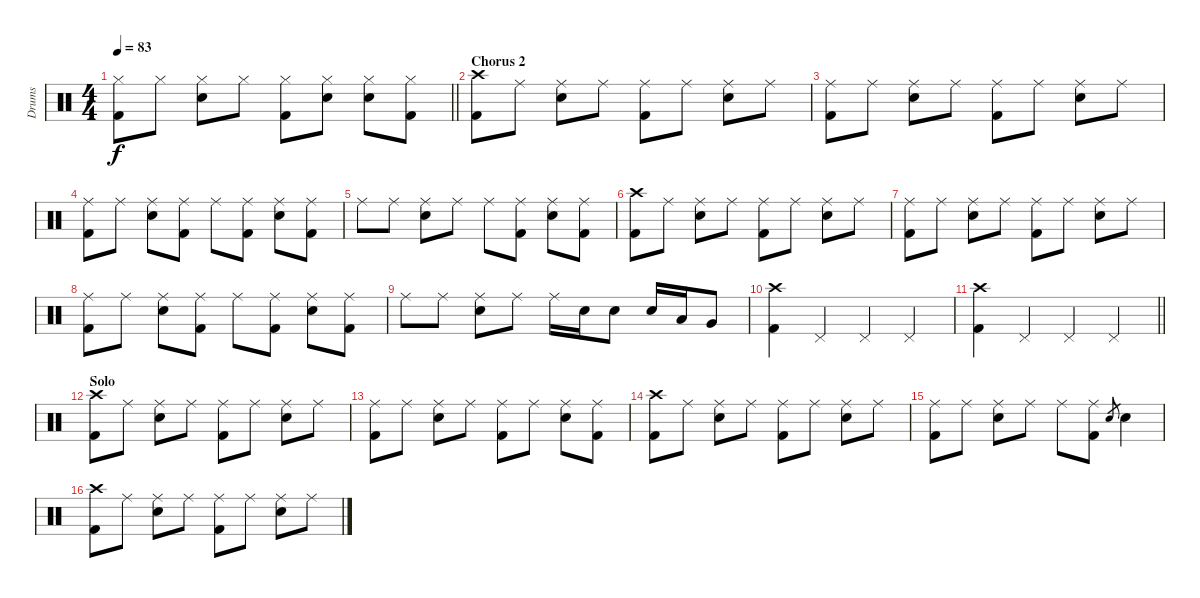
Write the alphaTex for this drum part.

\track ("Drums" "Drums") {instrument percussion}
\staff {score}
\articulation defaults
\ts (4 4)
\tempo 83
\clef neutral
\barLineRight lightlight
\ks c
("Hi-Hat (closed)" "Kick (hit) 2").8{dy f} "Hi-Hat (closed)".8 ("Hi-Hat (closed)" "Snare (hit) 2").8 "Hi-Hat (closed)".8 ("Hi-Hat (closed)" "Kick (hit) 2").8 ("Hi-Hat (closed)" "Snare (hit) 2").8 ("Hi-Hat (closed)" "Snare (hit) 2").8 ("Hi-Hat (closed)" "Kick (hit) 2").8 |
\section ("" "Chorus 2")
("Crash high (hit)" "Kick (hit) 2").8 "Ride (middle)".8 ("Ride (middle)" "Snare (hit) 2").8 "Ride (middle)".8 ("Ride (middle)" "Kick (hit) 2").8 "Ride (middle)".8 ("Ride (middle)" "Snare (hit) 2").8 "Ride (middle)".8 |
("Ride (middle)" "Kick (hit) 2").8 "Ride (middle)".8 ("Ride (middle)" "Snare (hit) 2").8 "Ride (middle)".8 ("Ride (middle)" "Kick (hit) 2").8 "Ride (middle)".8 ("Ride (middle)" "Snare (hit) 2").8 "Ride (middle)".8 |
("Ride (middle)" "Kick (hit) 2").8 "Ride (middle)".8 ("Ride (middle)" "Snare (hit) 2").8 ("Ride (middle)" "Kick (hit) 2").8 "Ride (middle)".8 ("Ride (middle)" "Kick (hit) 2").8 ("Ride (middle)" "Snare (hit) 2").8 ("Ride (middle)" "Kick (hit) 2").8 |
"Ride (middle)".8 "Ride (middle)".8 ("Ride (middle)" "Snare (hit) 2").8 "Ride (middle)".8 "Ride (middle)".8 ("Ride (middle)" "Kick (hit) 2").8 ("Ride (middle)" "Snare (hit) 2").8 ("Ride (middle)" "Kick (hit) 2").8 |
("Crash high (hit)" "Kick (hit) 2").8 "Ride (middle)".8 ("Ride (middle)" "Snare (hit) 2").8 "Ride (middle)".8 ("Ride (middle)" "Kick (hit) 2").8 "Ride (middle)".8 ("Ride (middle)" "Snare (hit) 2").8 "Ride (middle)".8 |
("Ride (middle)" "Kick (hit) 2").8 "Ride (middle)".8 ("Ride (middle)" "Snare (hit) 2").8 "Ride (middle)".8 ("Ride (middle)" "Kick (hit) 2").8 "Ride (middle)".8 ("Ride (middle)" "Snare (hit) 2").8 "Ride (middle)".8 |
("Ride (middle)" "Kick (hit) 2").8 "Ride (middle)".8 ("Ride (middle)" "Snare (hit) 2").8 ("Ride (middle)" "Kick (hit) 2").8 "Ride (middle)".8 ("Ride (middle)" "Kick (hit) 2").8 ("Ride (middle)" "Snare (hit) 2").8 ("Ride (middle)" "Kick (hit) 2").8 |
"Ride (middle)".8 "Ride (middle)".8 ("Ride (middle)" "Snare (hit) 2").8 "Ride (middle)".8 "Ride (middle)".16 "Snare (hit) 2".16 "Snare (hit) 2".8 "Snare (hit) 2".16 "Low Tom (hit)".16 "Very Low Tom (hit)".8 |
("Crash high (hit)" "Kick (hit) 2").4 "Pedal Hi-Hat (hit)".4 "Pedal Hi-Hat (hit)".4 "Pedal Hi-Hat (hit)".4 |
\barLineRight lightlight
("Crash high (hit)" "Kick (hit) 2").4 "Pedal Hi-Hat (hit)".4 "Pedal Hi-Hat (hit)".4 "Pedal Hi-Hat (hit)".4 |
\section ("" "Solo")
("Crash high (hit)" "Kick (hit) 2").8 "Ride (middle)".8 ("Ride (middle)" "Snare (hit) 2").8 "Ride (middle)".8 ("Ride (middle)" "Kick (hit) 2").8 "Ride (middle)".8 ("Ride (middle)" "Snare (hit) 2").8 "Ride (middle)".8 |
("Ride (middle)" "Kick (hit) 2").8 "Ride (middle)".8 ("Ride (middle)" "Snare (hit) 2").8 "Ride (middle)".8 ("Ride (middle)" "Kick (hit) 2").8 "Ride (middle)".8 ("Ride (middle)" "Snare (hit) 2").8 ("Ride (middle)" "Kick (hit) 2").8 |
("Crash high (hit)" "Kick (hit) 2").8 "Ride (middle)".8 ("Ride (middle)" "Snare (hit) 2").8 "Ride (middle)".8 ("Ride (middle)" "Kick (hit) 2").8 "Ride (middle)".8 ("Ride (middle)" "Snare (hit) 2").8 "Ride (middle)".8 |
("Ride (middle)" "Kick (hit) 2").8 "Ride (middle)".8 ("Ride (middle)" "Snare (hit) 2").8 "Ride (middle)".8 "Ride (middle)".8 ("Ride (middle)" "Kick (hit) 2").8 "Snare (hit) 2".8{gr} "Snare (hit) 2".4 |
("Crash high (hit)" "Kick (hit) 2").8 "Ride (middle)".8 ("Ride (middle)" "Snare (hit) 2").8 "Ride (middle)".8 ("Ride (middle)" "Kick (hit) 2").8 "Ride (middle)".8 ("Ride (middle)" "Snare (hit) 2").8 "Ride (middle)".8
